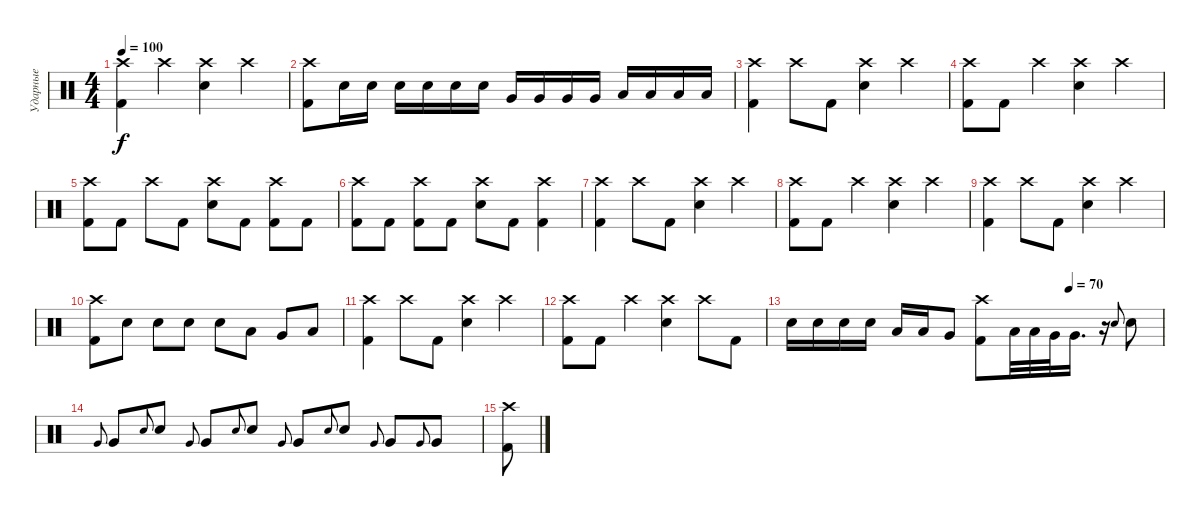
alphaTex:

\track ("Ударные" "Ударные") {instrument percussion}
\staff {score}
\articulation defaults
\ts (4 4)
\tempo 100
\clef neutral
\ks c
("Crash high (hit)" "Kick (hit) 2").4{dy f} "Crash high (hit)".4 ("Crash high (hit)" "Snare (hit) 2").4 "Crash high (hit)".4 |
("Crash high (hit)" "Kick (hit) 2").8 "Snare (hit) 2".16 "Snare (hit) 2".16 "Snare (hit) 2".16 "Snare (hit) 2".16 "Snare (hit) 2".16 "Snare (hit) 2".16 "Very Low Tom (hit)".16 "Very Low Tom (hit)".16 "Very Low Tom (hit)".16 "Very Low Tom (hit)".16 "Low Floor Tom (hit)".16 "Low Floor Tom (hit)".16 "Low Floor Tom (hit)".16 "Low Floor Tom (hit)".16 |
("Crash high (hit)" "Kick (hit) 2").4 "Crash high (hit)".8 "Kick (hit) 2".8 ("Crash high (hit)" "Snare (hit) 2").4 "Crash high (hit)".4 |
("Crash high (hit)" "Kick (hit) 2").8 "Kick (hit) 2".8 "Crash high (hit)".4 ("Crash high (hit)" "Snare (hit) 2").4 "Crash high (hit)".4 |
("Crash high (hit)" "Kick (hit) 2").8 "Kick (hit) 2".8 "Crash high (hit)".8 "Kick (hit) 2".8 ("Crash high (hit)" "Snare (hit) 2").8 "Kick (hit) 2".8 ("Crash high (hit)" "Kick (hit) 2").8 "Kick (hit) 2".8 |
("Crash high (hit)" "Kick (hit) 2").8 "Kick (hit) 2".8 ("Crash high (hit)" "Kick (hit) 2").8 "Kick (hit) 2".8 ("Crash high (hit)" "Snare (hit) 2").8 "Kick (hit) 2".8 ("Crash high (hit)" "Kick (hit) 2").4 |
("Crash high (hit)" "Kick (hit) 2").4 "Crash high (hit)".8 "Kick (hit) 2".8 ("Crash high (hit)" "Snare (hit) 2").4 "Crash high (hit)".4 |
("Crash high (hit)" "Kick (hit) 2").8 "Kick (hit) 2".8 "Crash high (hit)".4 ("Crash high (hit)" "Snare (hit) 2").4 "Crash high (hit)".4 |
("Crash high (hit)" "Kick (hit) 2").4 "Crash high (hit)".8 "Kick (hit) 2".8 ("Crash high (hit)" "Snare (hit) 2").4 "Crash high (hit)".4 |
("Crash high (hit)" "Kick (hit) 2").8 "Snare (hit) 2".8 "Snare (hit) 2".8 "Snare (hit) 2".8 "Snare (hit) 2".8 "Low Tom (hit)".8 "Very Low Tom (hit)".8 "Low Floor Tom (hit)".8 |
("Crash high (hit)" "Kick (hit) 2").4 "Crash high (hit)".8 "Kick (hit) 2".8 ("Crash high (hit)" "Snare (hit) 2").4 "Crash high (hit)".4 |
("Crash high (hit)" "Kick (hit) 2").8 "Kick (hit) 2".8 "Crash high (hit)".4 ("Crash high (hit)" "Snare (hit) 2").4 "Crash high (hit)".8 "Kick (hit) 2".8 |
\tempo (70 0.75)
"Snare (hit) 2".16 "Snare (hit) 2".16 "Snare (hit) 2".16 "Snare (hit) 2".16 "Low Tom (hit)".16 "Low Tom (hit)".16 "Very Low Tom (hit)".8 ("Crash high (hit)" "Kick (hit) 2").8 "Low Tom (hit)".32 "Low Tom (hit)".32 "Very Low Tom (hit)".32 "Very Low Tom (hit)".16{d} r.16 "Snare (hit) 2".8{gr onbeat} "Snare (hit) 2".8 |
"Very Low Tom (hit)".8{gr onbeat} "Very Low Tom (hit)".8 "Snare (hit) 2".8{gr onbeat} "Snare (hit) 2".8 "Very Low Tom (hit)".8{gr onbeat} "Very Low Tom (hit)".8 "Snare (hit) 2".8{gr onbeat} "Snare (hit) 2".8 "Very Low Tom (hit)".8{gr onbeat} "Very Low Tom (hit)".8 "Snare (hit) 2".8{gr onbeat} "Snare (hit) 2".8 "Very Low Tom (hit)".8{gr onbeat} "Very Low Tom (hit)".8 "Very Low Tom (hit)".8{gr onbeat} "Very Low Tom (hit)".8 |
("Crash high (hit)" "Kick (hit) 2").8
